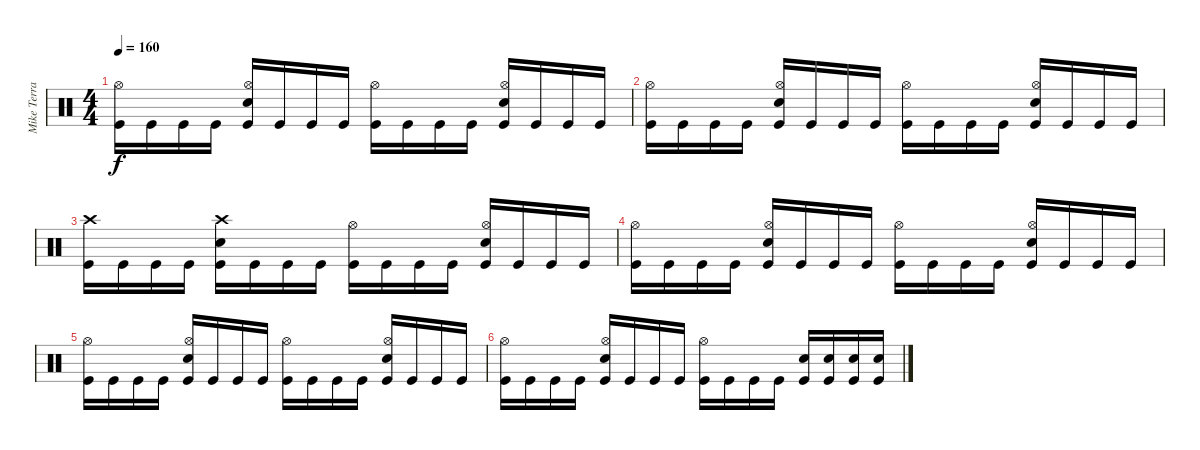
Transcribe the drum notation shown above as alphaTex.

\track ("Mike Terrana - Drums" "Mike Terra") {instrument percussion}
\staff {score}
\articulation defaults
\ts (4 4)
\tempo 160
\clef neutral
\ks c
("Kick (hit)" "Hi-Hat (open)").16{dy f} "Kick (hit)".16 "Kick (hit)".16 "Kick (hit)".16 ("Kick (hit)" "Electric Snare (hit)" "Hi-Hat (open)").16 "Kick (hit)".16 "Kick (hit)".16 "Kick (hit)".16 ("Kick (hit)" "Hi-Hat (open)").16 "Kick (hit)".16 "Kick (hit)".16 "Kick (hit)".16 ("Kick (hit)" "Electric Snare (hit)" "Hi-Hat (open)").16 "Kick (hit)".16 "Kick (hit)".16 "Kick (hit)".16 |
("Kick (hit)" "Hi-Hat (open)").16 "Kick (hit)".16 "Kick (hit)".16 "Kick (hit)".16 ("Kick (hit)" "Electric Snare (hit)" "Hi-Hat (open)").16 "Kick (hit)".16 "Kick (hit)".16 "Kick (hit)".16 ("Kick (hit)" "Hi-Hat (open)").16 "Kick (hit)".16 "Kick (hit)".16 "Kick (hit)".16 ("Kick (hit)" "Electric Snare (hit)" "Hi-Hat (open)").16 "Kick (hit)".16 "Kick (hit)".16 "Kick (hit)".16 |
("Kick (hit)" "Crash high (hit)").16 "Kick (hit)".16 "Kick (hit)".16 "Kick (hit)".16 ("Kick (hit)" "Electric Snare (hit)" "Crash high (hit)").16 "Kick (hit)".16 "Kick (hit)".16 "Kick (hit)".16 ("Kick (hit)" "Hi-Hat (open)").16 "Kick (hit)".16 "Kick (hit)".16 "Kick (hit)".16 ("Kick (hit)" "Electric Snare (hit)" "Hi-Hat (open)").16 "Kick (hit)".16 "Kick (hit)".16 "Kick (hit)".16 |
("Kick (hit)" "Hi-Hat (open)").16 "Kick (hit)".16 "Kick (hit)".16 "Kick (hit)".16 ("Kick (hit)" "Electric Snare (hit)" "Hi-Hat (open)").16 "Kick (hit)".16 "Kick (hit)".16 "Kick (hit)".16 ("Kick (hit)" "Hi-Hat (open)").16 "Kick (hit)".16 "Kick (hit)".16 "Kick (hit)".16 ("Kick (hit)" "Electric Snare (hit)" "Hi-Hat (open)").16 "Kick (hit)".16 "Kick (hit)".16 "Kick (hit)".16 |
("Kick (hit)" "Hi-Hat (open)").16 "Kick (hit)".16 "Kick (hit)".16 "Kick (hit)".16 ("Kick (hit)" "Electric Snare (hit)" "Hi-Hat (open)").16 "Kick (hit)".16 "Kick (hit)".16 "Kick (hit)".16 ("Kick (hit)" "Hi-Hat (open)").16 "Kick (hit)".16 "Kick (hit)".16 "Kick (hit)".16 ("Kick (hit)" "Electric Snare (hit)" "Hi-Hat (open)").16 "Kick (hit)".16 "Kick (hit)".16 "Kick (hit)".16 |
("Kick (hit)" "Hi-Hat (open)").16 "Kick (hit)".16 "Kick (hit)".16 "Kick (hit)".16 ("Kick (hit)" "Electric Snare (hit)" "Hi-Hat (open)").16 "Kick (hit)".16 "Kick (hit)".16 "Kick (hit)".16 ("Kick (hit)" "Hi-Hat (open)").16 "Kick (hit)".16 "Kick (hit)".16 "Kick (hit)".16 ("Kick (hit)" "Electric Snare (hit)").16 ("Kick (hit)" "Electric Snare (hit)").16 ("Kick (hit)" "Electric Snare (hit)").16 ("Kick (hit)" "Electric Snare (hit)").16
